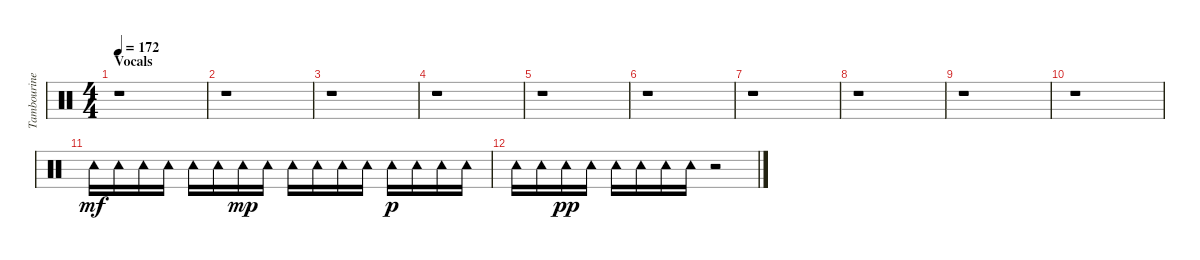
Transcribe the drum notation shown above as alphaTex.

\track ("Tambourine" "Tambourine") {instrument percussion}
\staff {score}
\articulation defaults
\ts (4 4)
\section ("" "Vocals")
\tempo 172
\clef neutral
\ks c
r.1{dy f} |
r.1 |
r.1 |
r.1 |
r.1 |
r.1 |
r.1 |
r.1 |
r.1 |
r.1 |
"Tambourine (hit)".16{dy mf} "Tambourine (hit)".16 "Tambourine (hit)".16 "Tambourine (hit)".16 "Tambourine (hit)".16 "Tambourine (hit)".16 "Tambourine (hit)".16{dy mp} "Tambourine (hit)".16 "Tambourine (hit)".16 "Tambourine (hit)".16 "Tambourine (hit)".16 "Tambourine (hit)".16 "Tambourine (hit)".16{dy p} "Tambourine (hit)".16 "Tambourine (hit)".16 "Tambourine (hit)".16 |
"Tambourine (hit)".16 "Tambourine (hit)".16 "Tambourine (hit)".16{dy pp} "Tambourine (hit)".16 "Tambourine (hit)".16 "Tambourine (hit)".16 "Tambourine (hit)".16 "Tambourine (hit)".16 r.2
